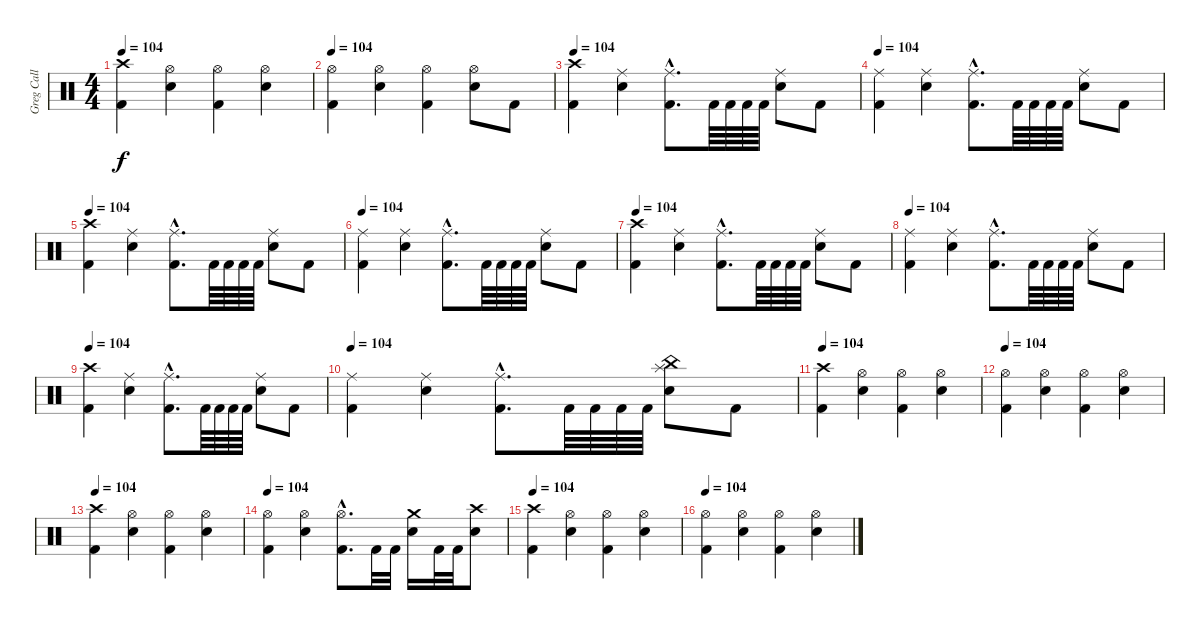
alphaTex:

\track ("Greg Call (Drums)" "Greg Call ") {instrument percussion}
\staff {score}
\articulation defaults
\ts (4 4)
\tempo 104
\clef neutral
\ks c
("Crash high (hit)" "Kick (hit) 2").4{dy f} ("Hi-Hat (open)" "Snare (hit) 2").4 ("Hi-Hat (open)" "Kick (hit) 2").4 ("Hi-Hat (open)" "Snare (hit) 2").4 |
\tempo 104
("Hi-Hat (open)" "Kick (hit) 2").4 ("Hi-Hat (open)" "Snare (hit) 2").4 ("Hi-Hat (open)" "Kick (hit) 2").4 ("Hi-Hat (open)" "Snare (hit) 2").8 "Kick (hit) 2".8 |
\tempo 104
("Crash high (hit)" "Kick (hit) 2").4 ("Ride (middle)" "Snare (hit) 2").4 ("Ride (middle)"{hac} "Kick (hit) 2"{hac}).8{d} "Kick (hit) 2".64 "Kick (hit) 2".64 "Kick (hit) 2".64 "Kick (hit) 2".64 ("Ride (middle)" "Snare (hit) 2").8 "Kick (hit) 2".8 |
\tempo 104
("Ride (middle)" "Kick (hit) 2").4 ("Ride (middle)" "Snare (hit) 2").4 ("Ride (middle)"{hac} "Kick (hit) 2"{hac}).8{d} "Kick (hit) 2".64 "Kick (hit) 2".64 "Kick (hit) 2".64 "Kick (hit) 2".64 ("Ride (middle)" "Snare (hit) 2").8 "Kick (hit) 2".8 |
\tempo 104
("Crash high (hit)" "Kick (hit) 2").4 ("Ride (middle)" "Snare (hit) 2").4 ("Ride (middle)"{hac} "Kick (hit) 2"{hac}).8{d} "Kick (hit) 2".64 "Kick (hit) 2".64 "Kick (hit) 2".64 "Kick (hit) 2".64 ("Ride (middle)" "Snare (hit) 2").8 "Kick (hit) 2".8 |
\tempo 104
("Ride (middle)" "Kick (hit) 2").4 ("Ride (middle)" "Snare (hit) 2").4 ("Ride (middle)"{hac} "Kick (hit) 2"{hac}).8{d} "Kick (hit) 2".64 "Kick (hit) 2".64 "Kick (hit) 2".64 "Kick (hit) 2".64 ("Ride (middle)" "Snare (hit) 2").8 "Kick (hit) 2".8 |
\tempo 104
("Crash high (hit)" "Kick (hit) 2").4 ("Ride (middle)" "Snare (hit) 2").4 ("Ride (middle)"{hac} "Kick (hit) 2"{hac}).8{d} "Kick (hit) 2".64 "Kick (hit) 2".64 "Kick (hit) 2".64 "Kick (hit) 2".64 ("Ride (middle)" "Snare (hit) 2").8 "Kick (hit) 2".8 |
\tempo 104
("Ride (middle)" "Kick (hit) 2").4 ("Ride (middle)" "Snare (hit) 2").4 ("Ride (middle)"{hac} "Kick (hit) 2"{hac}).8{d} "Kick (hit) 2".64 "Kick (hit) 2".64 "Kick (hit) 2".64 "Kick (hit) 2".64 ("Ride (middle)" "Snare (hit) 2").8 "Kick (hit) 2".8 |
\tempo 104
("Crash high (hit)" "Kick (hit) 2").4 ("Ride (middle)" "Snare (hit) 2").4 ("Ride (middle)"{hac} "Kick (hit) 2"{hac}).8{d} "Kick (hit) 2".64 "Kick (hit) 2".64 "Kick (hit) 2".64 "Kick (hit) 2".64 ("Ride (middle)" "Snare (hit) 2").8 "Kick (hit) 2".8 |
\tempo 104
("Ride (middle)" "Kick (hit) 2").4 ("Ride (middle)" "Snare (hit) 2").4 ("Ride (middle)"{hac} "Kick (hit) 2"{hac}).8{d} "Kick (hit) 2".64 "Kick (hit) 2".64 "Kick (hit) 2".64 "Kick (hit) 2".64 ("Splash (hit)" "China (hit)" "Snare (hit) 2").8 "Kick (hit) 2".8 |
\tempo 104
("Crash high (hit)" "Kick (hit) 2").4 ("Hi-Hat (open)" "Snare (hit) 2").4 ("Hi-Hat (open)" "Kick (hit) 2").4 ("Hi-Hat (open)" "Snare (hit) 2").4 |
\tempo 104
("Hi-Hat (open)" "Kick (hit) 2").4 ("Hi-Hat (open)" "Snare (hit) 2").4 ("Hi-Hat (open)" "Kick (hit) 2").4 ("Hi-Hat (open)" "Snare (hit) 2").4 |
\tempo 104
("Crash high (hit)" "Kick (hit) 2").4 ("Hi-Hat (open)" "Snare (hit) 2").4 ("Hi-Hat (open)" "Kick (hit) 2").4 ("Hi-Hat (open)" "Snare (hit) 2").4 |
\tempo 104
("Hi-Hat (open)" "Kick (hit) 2").4 ("Hi-Hat (open)" "Snare (hit) 2").4 ("Hi-Hat (open)"{hac} "Kick (hit) 2"{hac}).8{d} "Kick (hit) 2".32 "Kick (hit) 2".32 ("Crash medium (hit)" "Snare (hit) 2").16 "Kick (hit) 2".32 "Kick (hit) 2".32 ("Crash high (hit)" "Snare (hit) 2").8 |
\tempo 104
("Crash high (hit)" "Kick (hit) 2").4 ("Hi-Hat (open)" "Snare (hit) 2").4 ("Hi-Hat (open)" "Kick (hit) 2").4 ("Hi-Hat (open)" "Snare (hit) 2").4 |
\tempo 104
("Hi-Hat (open)" "Kick (hit) 2").4 ("Hi-Hat (open)" "Snare (hit) 2").4 ("Hi-Hat (open)" "Kick (hit) 2").4 ("Hi-Hat (open)" "Snare (hit) 2").4
